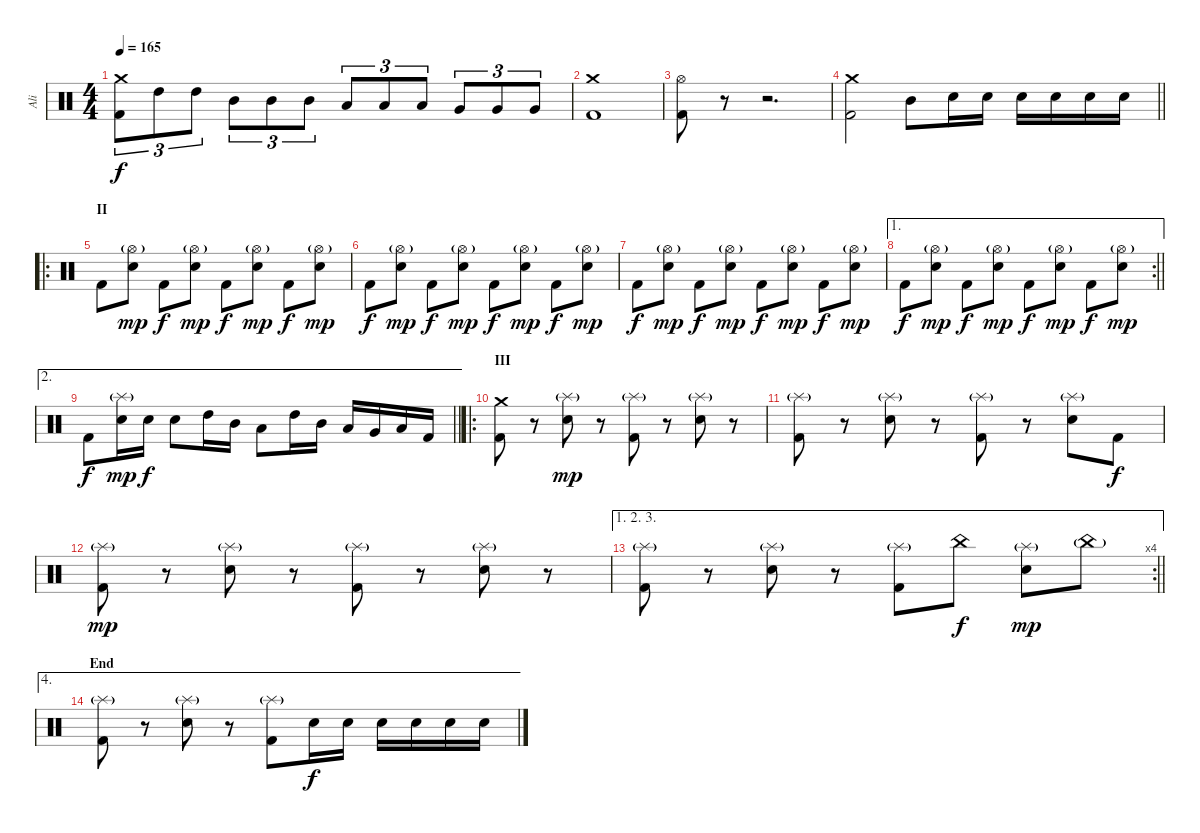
\track ("Ali" "Ali") {instrument percussion}
\staff {score}
\articulation defaults
\ts (4 4)
\tempo 165
\clef neutral
\ks c
("Kick (hit) 2" "Crash medium (hit)").8{tu (3 2) dy f} "High Tom (hit)".8{tu (3 2)} "High Tom (hit)".8{tu (3 2)} "Mid Tom (hit)".8{tu (3 2)} "Mid Tom (hit)".8{tu (3 2)} "Mid Tom (hit)".8{tu (3 2)} "Low Tom (hit)".8{tu (3 2)} "Low Tom (hit)".8{tu (3 2)} "Low Tom (hit)".8{tu (3 2)} "Very Low Tom (hit)".8{tu (3 2)} "Very Low Tom (hit)".8{tu (3 2)} "Very Low Tom (hit)".8{tu (3 2)} |
("Kick (hit) 2" "Crash medium (hit)").1 |
("Kick (hit) 2" "Hi-Hat (open)").8 r.8 r.2{d} |
\barLineRight lightlight
("Kick (hit) 2" "Crash medium (hit)").2 "Mid Tom (hit)".8 "Snare (hit) 2".16 "Snare (hit) 2".16 "Snare (hit) 2".16 "Snare (hit) 2".16 "Snare (hit) 2".16 "Snare (hit) 2".16 |
\ro
\section ("" "II")
"Kick (hit) 2".8 ("Snare (hit) 2" "Hi-Hat (open)"{g}).8{dy mp} "Kick (hit) 2".8{dy f} ("Snare (hit) 2" "Hi-Hat (open)"{g}).8{dy mp} "Kick (hit) 2".8{dy f} ("Snare (hit) 2" "Hi-Hat (open)"{g}).8{dy mp} "Kick (hit) 2".8{dy f} ("Snare (hit) 2" "Hi-Hat (open)"{g}).8{dy mp} |
"Kick (hit) 2".8{dy f} ("Snare (hit) 2" "Hi-Hat (open)"{g}).8{dy mp} "Kick (hit) 2".8{dy f} ("Snare (hit) 2" "Hi-Hat (open)"{g}).8{dy mp} "Kick (hit) 2".8{dy f} ("Snare (hit) 2" "Hi-Hat (open)"{g}).8{dy mp} "Kick (hit) 2".8{dy f} ("Snare (hit) 2" "Hi-Hat (open)"{g}).8{dy mp} |
"Kick (hit) 2".8{dy f} ("Snare (hit) 2" "Hi-Hat (open)"{g}).8{dy mp} "Kick (hit) 2".8{dy f} ("Snare (hit) 2" "Hi-Hat (open)"{g}).8{dy mp} "Kick (hit) 2".8{dy f} ("Snare (hit) 2" "Hi-Hat (open)"{g}).8{dy mp} "Kick (hit) 2".8{dy f} ("Snare (hit) 2" "Hi-Hat (open)"{g}).8{dy mp} |
\ae 1
\rc 2
\barLineRight lightlight "Kick (hit) 2".8{dy f}
("Snare (hit) 2" "Hi-Hat (open)"{g}).8{dy mp} "Kick (hit) 2".8{dy f} ("Snare (hit) 2" "Hi-Hat (open)"{g}).8{dy mp} "Kick (hit) 2".8{dy f} ("Snare (hit) 2" "Hi-Hat (open)"{g}).8{dy mp} "Kick (hit) 2".8{dy f} ("Snare (hit) 2" "Hi-Hat (open)"{g}).8{dy mp} |
\ae 2
\barLineRight lightlight "Kick (hit) 2".8{dy f}
("Snare (hit) 2" "Splash (hit)"{g}).16{dy mp} "Snare (hit) 2".16{dy f} "Snare (hit) 2".8 "High Tom (hit)".16 "Mid Tom (hit)".16 "Low Tom (hit)".8 "High Tom (hit)".16 "Mid Tom (hit)".16 "Low Tom (hit)".16 "Very Low Tom (hit)".16 "Low Floor Tom (hit)".16 "Kick (hit) 2".16 |
\ro
\section ("" "III")
("Kick (hit) 2" "Crash medium (hit)").8 r.8 ("Electric Snare (hit)" "Splash (hit)"{g}).8{dy mp} r.8 ("Kick (hit) 2" "Splash (hit)"{g}).8 r.8 ("Electric Snare (hit)" "Splash (hit)"{g}).8 r.8 |
("Kick (hit) 2" "Splash (hit)"{g}).8 r.8 ("Electric Snare (hit)" "Splash (hit)"{g}).8 r.8 ("Kick (hit) 2" "Splash (hit)"{g}).8 r.8 ("Electric Snare (hit)" "Splash (hit)"{g}).8 "Kick (hit) 2".8{dy f} |
("Kick (hit) 2" "Splash (hit)"{g}).8{dy mp} r.8 ("Electric Snare (hit)" "Splash (hit)"{g}).8 r.8 ("Kick (hit) 2" "Splash (hit)"{g}).8 r.8 ("Electric Snare (hit)" "Splash (hit)"{g}).8 r.8 |
\ae (1 2 3)
\rc 4
\barLineRight lightlight
("Kick (hit) 2" "Splash (hit)"{g}).8 r.8 ("Electric Snare (hit)" "Splash (hit)"{g}).8 r.8 ("Kick (hit) 2" "Splash (hit)"{g}).8 "China (hit)".8{dy f} ("Electric Snare (hit)" "Splash (hit)"{g}).8{dy mp} "China (hit)"{g}.8 |
\ae 4
\section ("" "End")
("Kick (hit) 2" "Splash (hit)"{g}).8 r.8 ("Electric Snare (hit)" "Splash (hit)"{g}).8 r.8 ("Kick (hit) 2" "Splash (hit)"{g}).8 "Snare (hit) 2".16{dy f} "Snare (hit) 2".16 "Snare (hit) 2".16 "Snare (hit) 2".16 "Snare (hit) 2".16 "Snare (hit) 2".16
